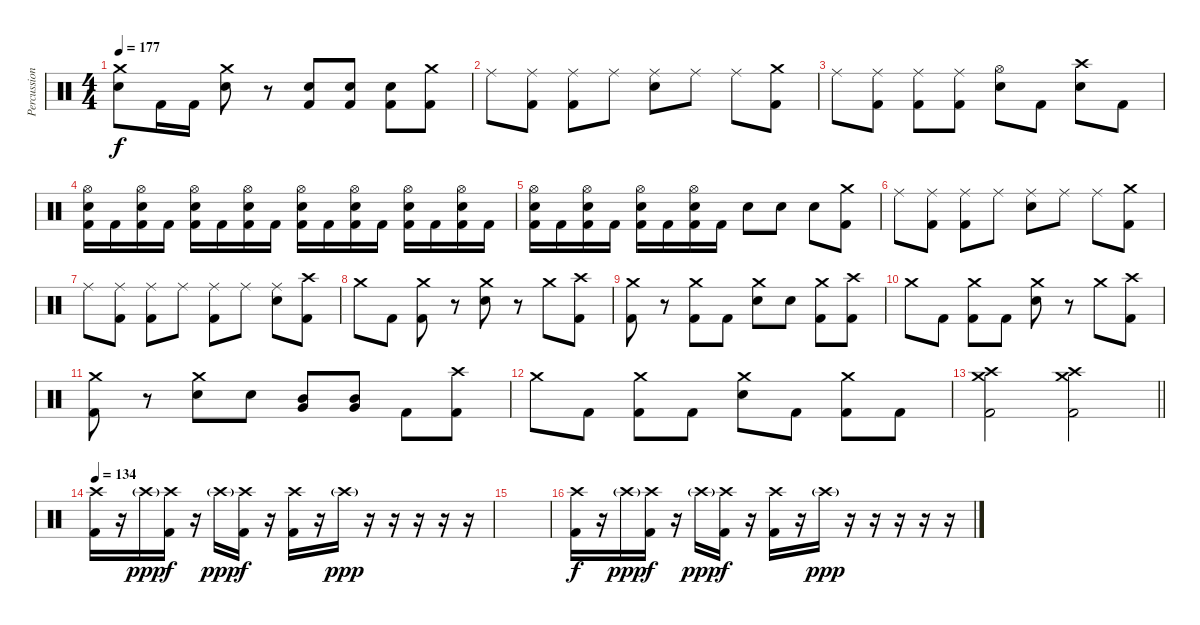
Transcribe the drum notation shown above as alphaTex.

\track ("Percussion" "Percussion") {instrument percussion}
\staff {score}
\articulation defaults
\ts (4 4)
\tempo 177
\clef neutral
\ks c
("Crash medium (hit)" "Snare (hit) 2").8{dy f} "Kick (hit) 2".16 "Kick (hit) 2".16 ("Crash medium (hit)" "Snare (hit) 2").8 r.8 ("Snare (hit) 2" "Kick (hit) 2").8 ("Snare (hit) 2" "Kick (hit) 2").8 ("Snare (hit) 2" "Kick (hit) 2").8 ("Crash medium (hit)" "Kick (hit) 2").8 |
"Ride (middle)".8 ("Ride (middle)" "Kick (hit) 2").8 ("Ride (middle)" "Kick (hit) 2").8 "Ride (middle)".8 ("Ride (middle)" "Snare (hit) 2").8 "Ride (middle)".8 "Ride (middle)".8 ("Crash medium (hit)" "Kick (hit) 2").8 |
"Ride (middle)".8 ("Ride (middle)" "Kick (hit) 2").8 ("Ride (middle)" "Kick (hit) 2").8 ("Ride (middle)" "Kick (hit) 2").8 ("Hi-Hat (open)" "Snare (hit) 2").8 "Kick (hit) 2".8 ("Crash high (hit)" "Snare (hit) 2").8 "Kick (hit) 2".8 |
("Hi-Hat (open)" "Snare (hit) 2" "Kick (hit) 2").16 "Kick (hit) 2".16 ("Hi-Hat (open)" "Snare (hit) 2" "Kick (hit) 2").16 "Kick (hit) 2".16 ("Hi-Hat (open)" "Snare (hit) 2" "Kick (hit) 2").16 "Kick (hit) 2".16 ("Hi-Hat (open)" "Snare (hit) 2" "Kick (hit) 2").16 "Kick (hit) 2".16 ("Hi-Hat (open)" "Snare (hit) 2" "Kick (hit) 2").16 "Kick (hit) 2".16 ("Hi-Hat (open)" "Snare (hit) 2" "Kick (hit) 2").16 "Kick (hit) 2".16 ("Hi-Hat (open)" "Snare (hit) 2" "Kick (hit) 2").16 "Kick (hit) 2".16 ("Hi-Hat (open)" "Snare (hit) 2" "Kick (hit) 2").16 "Kick (hit) 2".16 |
("Hi-Hat (open)" "Snare (hit) 2" "Kick (hit) 2").16 "Kick (hit) 2".16 ("Hi-Hat (open)" "Snare (hit) 2" "Kick (hit) 2").16 "Kick (hit) 2".16 ("Hi-Hat (open)" "Snare (hit) 2" "Kick (hit) 2").16 "Kick (hit) 2".16 ("Hi-Hat (open)" "Snare (hit) 2" "Kick (hit) 2").16 "Kick (hit) 2".16 "Snare (hit) 2".8 "Snare (hit) 2".8 "Snare (hit) 2".8 ("Crash medium (hit)" "Kick (hit) 2").8 |
"Ride (middle)".8 ("Ride (middle)" "Kick (hit) 2").8 ("Ride (middle)" "Kick (hit) 2").8 "Ride (middle)".8 ("Ride (middle)" "Snare (hit) 2").8 "Ride (middle)".8 "Ride (middle)".8 ("Crash medium (hit)" "Kick (hit) 2").8 |
"Ride (middle)".8 ("Ride (middle)" "Kick (hit) 2").8 ("Ride (middle)" "Kick (hit) 2").8 "Ride (middle)".8 ("Ride (middle)" "Kick (hit) 2").8 "Ride (middle)".8 ("Ride (middle)" "Snare (hit) 2").8 ("Crash high (hit)" "Kick (hit) 2").8 |
"Crash medium (hit)".8 "Kick (hit) 2".8 ("Crash medium (hit)" "Kick (hit) 2").8 r.8 ("Crash medium (hit)" "Snare (hit) 2").8 r.8 "Crash medium (hit)".8 ("Crash high (hit)" "Kick (hit) 2").8 |
("Crash medium (hit)" "Kick (hit) 2").8 r.8 ("Crash medium (hit)" "Kick (hit) 2").8 "Kick (hit) 2".8 ("Crash medium (hit)" "Snare (hit) 2").8 "Snare (hit) 2".8 ("Crash medium (hit)" "Kick (hit) 2").8 ("Crash high (hit)" "Kick (hit) 2").8 |
"Crash medium (hit)".8 "Kick (hit) 2".8 ("Crash medium (hit)" "Kick (hit) 2").8 "Kick (hit) 2".8 ("Crash medium (hit)" "Snare (hit) 2").8 r.8 "Crash medium (hit)".8 ("Crash high (hit)" "Kick (hit) 2").8 |
("Crash medium (hit)" "Kick (hit) 2").8 r.8 ("Crash medium (hit)" "Snare (hit) 2").8 "Snare (hit) 2".8 ("Mid Tom (hit)" "Very Low Tom (hit)").8 ("Mid Tom (hit)" "Very Low Tom (hit)").8 "Kick (hit) 2".8 ("Crash high (hit)" "Kick (hit) 2").8 |
"Crash medium (hit)".8 "Kick (hit) 2".8 ("Crash medium (hit)" "Kick (hit) 2").8 "Kick (hit) 2".8 ("Crash medium (hit)" "Snare (hit) 2").8 "Kick (hit) 2".8 ("Crash medium (hit)" "Kick (hit) 2").8 "Kick (hit) 2".8 |
\barLineRight lightlight
("Crash high (hit)" "Crash medium (hit)" "Kick (hit) 2").2 ("Crash high (hit)" "Crash medium (hit)" "Kick (hit) 2").2 |
\section ("" "")
\tempo 134
("Crash high (hit)" "Kick (hit) 2").16 r.16 "Crash high (hit)"{g}.16{dy ppp} ("Crash high (hit)" "Kick (hit) 2").16{dy f} r.16 "Crash high (hit)"{g}.16{dy ppp} ("Crash high (hit)" "Kick (hit) 2").16{dy f} r.16 ("Crash high (hit)" "Kick (hit) 2").16 r.16 "Crash high (hit)"{g}.16{dy ppp} r.16 r.16 r.16 r.16 r.16 |
|
("Crash high (hit)" "Kick (hit) 2").16{dy f} r.16 "Crash high (hit)"{g}.16{dy ppp} ("Crash high (hit)" "Kick (hit) 2").16{dy f} r.16 "Crash high (hit)"{g}.16{dy ppp} ("Crash high (hit)" "Kick (hit) 2").16{dy f} r.16 ("Crash high (hit)" "Kick (hit) 2").16 r.16 "Crash high (hit)"{g}.16{dy ppp} r.16 r.16 r.16 r.16 r.16
